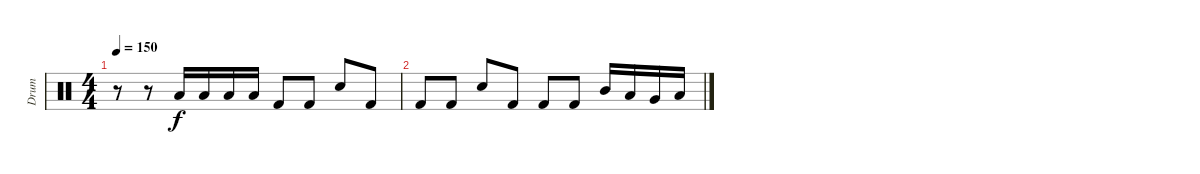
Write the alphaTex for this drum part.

\track ("Drum" "Drum") {instrument percussion}
\staff {score}
\articulation defaults
\ts (4 4)
\tempo 150
\clef neutral
\ks c
r.8{dy f} r.8 "Low Floor Tom (hit)".16 "Low Floor Tom (hit)".16 "Low Floor Tom (hit)".16 "Low Floor Tom (hit)".16 "Kick (hit) 2".8 "Kick (hit) 2".8 "Electric Snare (hit)".8 "Kick (hit) 2".8 |
"Kick (hit) 2".8 "Kick (hit) 2".8 "Electric Snare (hit)".8 "Kick (hit) 2".8 "Kick (hit) 2".8 "Kick (hit) 2".8 "Mid Tom (hit)".16 "Low Tom (hit)".16 "Very Low Tom (hit)".16 "Low Floor Tom (hit)".16
